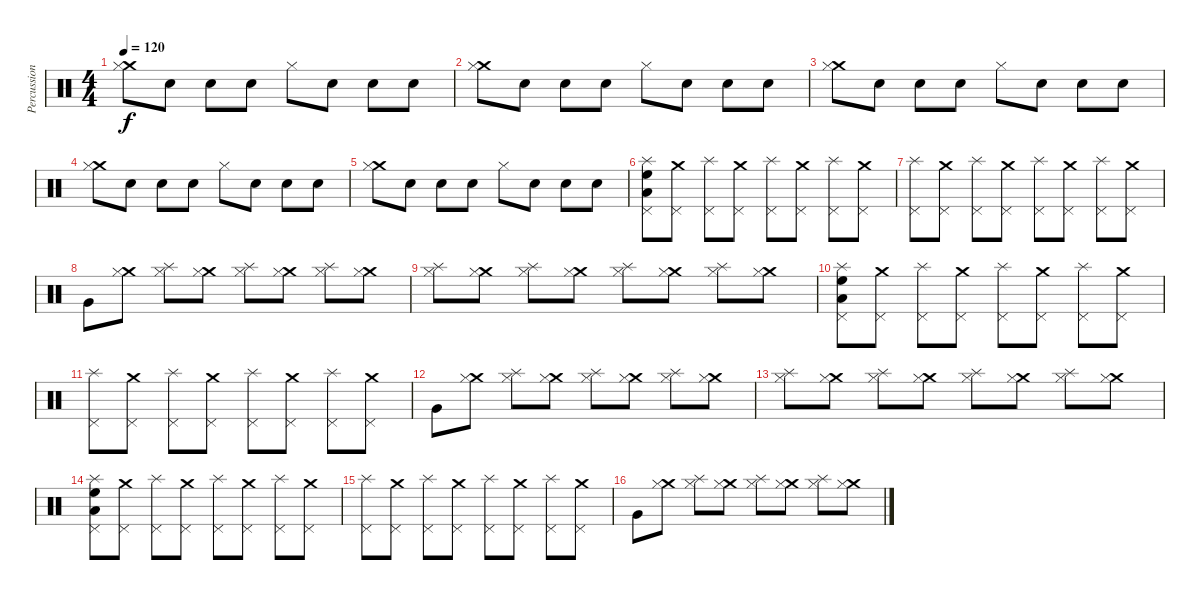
\track ("Percussion" "Percussion") {instrument percussion}
\staff {score}
\articulation defaults
\ts (4 4)
\tempo 120
\clef neutral
\ks c
("Crash medium (hit)" "Hi-Hat (closed)").8{dy f} "Electric Snare (hit)".8 "Electric Snare (hit)".8 "Electric Snare (hit)".8 "Hi-Hat (closed)".8 "Electric Snare (hit)".8 "Electric Snare (hit)".8 "Electric Snare (hit)".8 |
("Crash medium (hit)" "Hi-Hat (closed)").8 "Electric Snare (hit)".8 "Electric Snare (hit)".8 "Electric Snare (hit)".8 "Hi-Hat (closed)".8 "Electric Snare (hit)".8 "Electric Snare (hit)".8 "Electric Snare (hit)".8 |
("Crash medium (hit)" "Hi-Hat (closed)").8 "Electric Snare (hit)".8 "Electric Snare (hit)".8 "Electric Snare (hit)".8 "Hi-Hat (closed)".8 "Electric Snare (hit)".8 "Electric Snare (hit)".8 "Electric Snare (hit)".8 |
("Crash medium (hit)" "Hi-Hat (closed)").8 "Electric Snare (hit)".8 "Electric Snare (hit)".8 "Electric Snare (hit)".8 "Hi-Hat (closed)".8 "Electric Snare (hit)".8 "Electric Snare (hit)".8 "Electric Snare (hit)".8 |
("Crash medium (hit)" "Hi-Hat (closed)").8 "Electric Snare (hit)".8 "Electric Snare (hit)".8 "Electric Snare (hit)".8 "Hi-Hat (closed)".8 "Electric Snare (hit)".8 "Electric Snare (hit)".8 "Electric Snare (hit)".8 |
("Splash (hit)" "Pedal Hi-Hat (hit)" "High Floor Tom (hit)" "Low Tom (hit)").8 ("Crash medium (hit)" "Pedal Hi-Hat (hit)").8 ("Splash (hit)" "Pedal Hi-Hat (hit)").8 ("Crash medium (hit)" "Pedal Hi-Hat (hit)").8 ("Splash (hit)" "Pedal Hi-Hat (hit)").8 ("Crash medium (hit)" "Pedal Hi-Hat (hit)").8 ("Splash (hit)" "Pedal Hi-Hat (hit)").8 ("Crash medium (hit)" "Pedal Hi-Hat (hit)").8 |
("Splash (hit)" "Pedal Hi-Hat (hit)").8 ("Crash medium (hit)" "Pedal Hi-Hat (hit)").8 ("Splash (hit)" "Pedal Hi-Hat (hit)").8 ("Crash medium (hit)" "Pedal Hi-Hat (hit)").8 ("Splash (hit)" "Pedal Hi-Hat (hit)").8 ("Crash medium (hit)" "Pedal Hi-Hat (hit)").8 ("Splash (hit)" "Pedal Hi-Hat (hit)").8 ("Crash medium (hit)" "Pedal Hi-Hat (hit)").8 |
"Very Low Tom (hit)".8 ("Crash medium (hit)" "Hi-Hat (closed)").8 ("Splash (hit)" "Hi-Hat (closed)").8 ("Crash medium (hit)" "Hi-Hat (closed)").8 ("Splash (hit)" "Hi-Hat (closed)").8 ("Crash medium (hit)" "Hi-Hat (closed)").8 ("Splash (hit)" "Hi-Hat (closed)").8 ("Crash medium (hit)" "Hi-Hat (closed)").8 |
("Splash (hit)" "Hi-Hat (closed)").8 ("Crash medium (hit)" "Hi-Hat (closed)").8 ("Splash (hit)" "Hi-Hat (closed)").8 ("Crash medium (hit)" "Hi-Hat (closed)").8 ("Splash (hit)" "Hi-Hat (closed)").8 ("Crash medium (hit)" "Hi-Hat (closed)").8 ("Splash (hit)" "Hi-Hat (closed)").8 ("Crash medium (hit)" "Hi-Hat (closed)").8 |
("Splash (hit)" "Pedal Hi-Hat (hit)" "High Floor Tom (hit)" "Low Tom (hit)").8 ("Crash medium (hit)" "Pedal Hi-Hat (hit)").8 ("Splash (hit)" "Pedal Hi-Hat (hit)").8 ("Crash medium (hit)" "Pedal Hi-Hat (hit)").8 ("Splash (hit)" "Pedal Hi-Hat (hit)").8 ("Crash medium (hit)" "Pedal Hi-Hat (hit)").8 ("Splash (hit)" "Pedal Hi-Hat (hit)").8 ("Crash medium (hit)" "Pedal Hi-Hat (hit)").8 |
("Splash (hit)" "Pedal Hi-Hat (hit)").8 ("Crash medium (hit)" "Pedal Hi-Hat (hit)").8 ("Splash (hit)" "Pedal Hi-Hat (hit)").8 ("Crash medium (hit)" "Pedal Hi-Hat (hit)").8 ("Splash (hit)" "Pedal Hi-Hat (hit)").8 ("Crash medium (hit)" "Pedal Hi-Hat (hit)").8 ("Splash (hit)" "Pedal Hi-Hat (hit)").8 ("Crash medium (hit)" "Pedal Hi-Hat (hit)").8 |
"Very Low Tom (hit)".8 ("Crash medium (hit)" "Hi-Hat (closed)").8 ("Splash (hit)" "Hi-Hat (closed)").8 ("Crash medium (hit)" "Hi-Hat (closed)").8 ("Splash (hit)" "Hi-Hat (closed)").8 ("Crash medium (hit)" "Hi-Hat (closed)").8 ("Splash (hit)" "Hi-Hat (closed)").8 ("Crash medium (hit)" "Hi-Hat (closed)").8 |
("Splash (hit)" "Hi-Hat (closed)").8 ("Crash medium (hit)" "Hi-Hat (closed)").8 ("Splash (hit)" "Hi-Hat (closed)").8 ("Crash medium (hit)" "Hi-Hat (closed)").8 ("Splash (hit)" "Hi-Hat (closed)").8 ("Crash medium (hit)" "Hi-Hat (closed)").8 ("Splash (hit)" "Hi-Hat (closed)").8 ("Crash medium (hit)" "Hi-Hat (closed)").8 |
("Splash (hit)" "Pedal Hi-Hat (hit)" "High Floor Tom (hit)" "Low Tom (hit)").8 ("Crash medium (hit)" "Pedal Hi-Hat (hit)").8 ("Splash (hit)" "Pedal Hi-Hat (hit)").8 ("Crash medium (hit)" "Pedal Hi-Hat (hit)").8 ("Splash (hit)" "Pedal Hi-Hat (hit)").8 ("Crash medium (hit)" "Pedal Hi-Hat (hit)").8 ("Splash (hit)" "Pedal Hi-Hat (hit)").8 ("Crash medium (hit)" "Pedal Hi-Hat (hit)").8 |
("Splash (hit)" "Pedal Hi-Hat (hit)").8 ("Crash medium (hit)" "Pedal Hi-Hat (hit)").8 ("Splash (hit)" "Pedal Hi-Hat (hit)").8 ("Crash medium (hit)" "Pedal Hi-Hat (hit)").8 ("Splash (hit)" "Pedal Hi-Hat (hit)").8 ("Crash medium (hit)" "Pedal Hi-Hat (hit)").8 ("Splash (hit)" "Pedal Hi-Hat (hit)").8 ("Crash medium (hit)" "Pedal Hi-Hat (hit)").8 |
"Very Low Tom (hit)".8 ("Crash medium (hit)" "Hi-Hat (closed)").8 ("Splash (hit)" "Hi-Hat (closed)").8 ("Crash medium (hit)" "Hi-Hat (closed)").8 ("Splash (hit)" "Hi-Hat (closed)").8 ("Crash medium (hit)" "Hi-Hat (closed)").8 ("Splash (hit)" "Hi-Hat (closed)").8 ("Crash medium (hit)" "Hi-Hat (closed)").8
